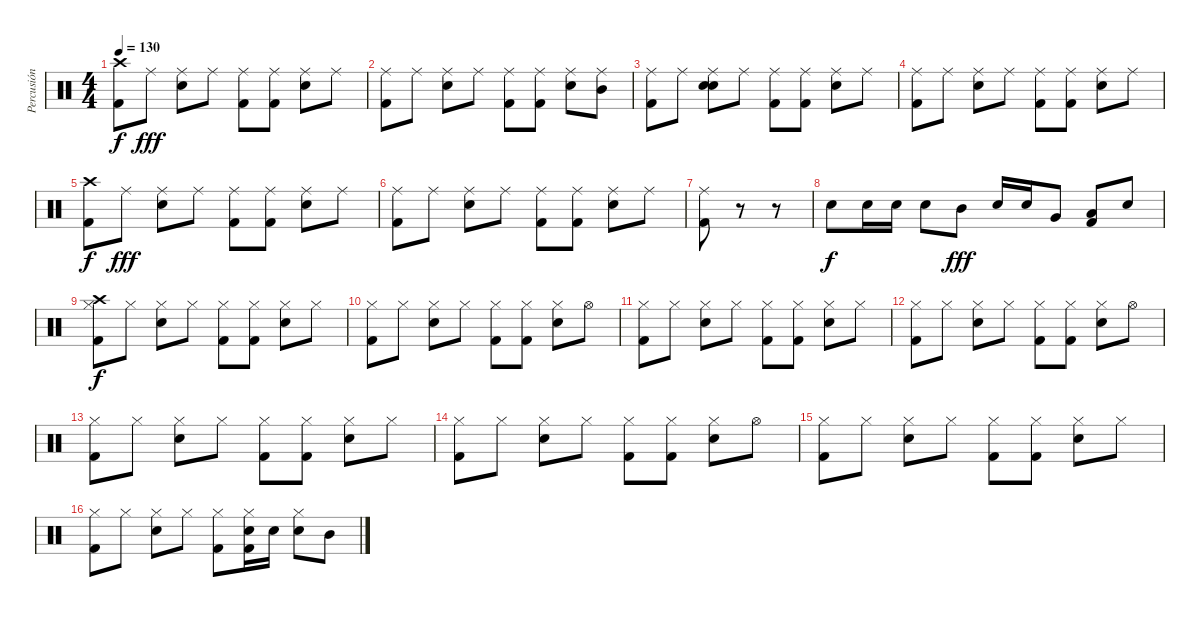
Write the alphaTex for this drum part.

\track ("Percusión" "Percusión") {instrument percussion}
\staff {score}
\articulation defaults
\ts (4 4)
\tempo 130
\clef neutral
\ks c
("Kick (hit) 2" "Crash high (hit)").8{dy f} "Ride (middle)".8{dy fff} ("Ride (middle)" "Electric Snare (hit)").8 "Ride (middle)".8 ("Ride (middle)" "Kick (hit) 2").8 ("Ride (middle)" "Kick (hit) 2").8 ("Ride (middle)" "Electric Snare (hit)").8 "Ride (middle)".8 |
("Ride (middle)" "Kick (hit) 2").8 "Ride (middle)".8 ("Ride (middle)" "Electric Snare (hit)").8 "Ride (middle)".8 ("Ride (middle)" "Kick (hit) 2").8 ("Ride (middle)" "Kick (hit) 2").8 ("Ride (middle)" "Electric Snare (hit)").8 ("Ride (middle)" "Mid Tom (hit)").8{balance 16} |
("Ride (middle)" "Kick (hit) 2").8{balance 8} "Ride (middle)".8 ("Ride (middle)" "Electric Snare (hit)" "Snare (hit)").8 "Ride (middle)".8 ("Ride (middle)" "Kick (hit) 2").8 ("Ride (middle)" "Kick (hit) 2").8 ("Ride (middle)" "Electric Snare (hit)").8 "Ride (middle)".8 |
("Ride (middle)" "Kick (hit) 2").8 "Ride (middle)".8 ("Ride (middle)" "Electric Snare (hit)").8 "Ride (middle)".8 ("Ride (middle)" "Kick (hit) 2").8 ("Ride (middle)" "Kick (hit) 2").8 ("Ride (middle)" "Electric Snare (hit)").8 "Ride (middle)".8 |
("Kick (hit) 2" "Crash high (hit)").8{dy f} "Ride (middle)".8{dy fff} ("Ride (middle)" "Electric Snare (hit)").8 "Ride (middle)".8 ("Ride (middle)" "Kick (hit) 2").8 ("Ride (middle)" "Kick (hit) 2").8 ("Ride (middle)" "Electric Snare (hit)").8 "Ride (middle)".8 |
("Ride (middle)" "Kick (hit) 2").8 "Ride (middle)".8 ("Ride (middle)" "Electric Snare (hit)").8 "Ride (middle)".8 ("Ride (middle)" "Kick (hit) 2").8 ("Ride (middle)" "Kick (hit) 2").8 ("Ride (middle)" "Electric Snare (hit)").8 "Ride (middle)".8 |
("Ride (middle)" "Kick (hit) 2").8 r.8 r.8 |
"Electric Snare (hit)".8{dy f} "Electric Snare (hit)".16 "Electric Snare (hit)".16 "Electric Snare (hit)".8 "Mid Tom (hit)".8{dy fff} "Electric Snare (hit)".16 "Electric Snare (hit)".16 "Very Low Tom (hit)".8 ("Low Floor Tom (hit)" "Kick (hit) 2").8 "Electric Snare (hit)".8 |
("Hi-Hat (closed)" "Kick (hit) 2" "Crash high (hit)").8{dy f} "Hi-Hat (closed)".8 ("Hi-Hat (closed)" "Electric Snare (hit)").8 "Hi-Hat (closed)".8 ("Hi-Hat (closed)" "Kick (hit) 2").8 ("Hi-Hat (closed)" "Kick (hit) 2").8 ("Hi-Hat (closed)" "Electric Snare (hit)").8 "Hi-Hat (closed)".8 |
("Hi-Hat (closed)" "Kick (hit) 2").8 "Hi-Hat (closed)".8 ("Hi-Hat (closed)" "Electric Snare (hit)").8 "Hi-Hat (closed)".8 ("Hi-Hat (closed)" "Kick (hit) 2").8 ("Hi-Hat (closed)" "Kick (hit) 2").8 ("Hi-Hat (closed)" "Electric Snare (hit)").8 "Hi-Hat (open)".8 |
("Hi-Hat (closed)" "Kick (hit) 2").8 "Hi-Hat (closed)".8 ("Hi-Hat (closed)" "Electric Snare (hit)").8 "Hi-Hat (closed)".8 ("Hi-Hat (closed)" "Kick (hit) 2").8 ("Hi-Hat (closed)" "Kick (hit) 2").8 ("Hi-Hat (closed)" "Electric Snare (hit)").8 "Hi-Hat (closed)".8 |
("Hi-Hat (closed)" "Kick (hit) 2").8 "Hi-Hat (closed)".8 ("Hi-Hat (closed)" "Electric Snare (hit)").8 "Hi-Hat (closed)".8 ("Hi-Hat (closed)" "Kick (hit) 2").8 ("Hi-Hat (closed)" "Kick (hit) 2").8 ("Hi-Hat (closed)" "Electric Snare (hit)").8 "Hi-Hat (open)".8 |
("Hi-Hat (closed)" "Kick (hit) 2").8 "Hi-Hat (closed)".8 ("Hi-Hat (closed)" "Electric Snare (hit)").8 "Hi-Hat (closed)".8 ("Hi-Hat (closed)" "Kick (hit) 2").8 ("Hi-Hat (closed)" "Kick (hit) 2").8 ("Hi-Hat (closed)" "Electric Snare (hit)").8 "Hi-Hat (closed)".8 |
("Hi-Hat (closed)" "Kick (hit) 2").8 "Hi-Hat (closed)".8 ("Hi-Hat (closed)" "Electric Snare (hit)").8 "Hi-Hat (closed)".8 ("Hi-Hat (closed)" "Kick (hit) 2").8 ("Hi-Hat (closed)" "Kick (hit) 2").8 ("Hi-Hat (closed)" "Electric Snare (hit)").8 "Hi-Hat (open)".8 |
("Hi-Hat (closed)" "Kick (hit) 2").8 "Hi-Hat (closed)".8 ("Hi-Hat (closed)" "Electric Snare (hit)").8 "Hi-Hat (closed)".8 ("Hi-Hat (closed)" "Kick (hit) 2").8 ("Hi-Hat (closed)" "Kick (hit) 2").8 ("Hi-Hat (closed)" "Electric Snare (hit)").8 "Hi-Hat (closed)".8 |
("Hi-Hat (closed)" "Kick (hit) 2").8 "Hi-Hat (closed)".8 ("Hi-Hat (closed)" "Electric Snare (hit)").8 "Hi-Hat (closed)".8 ("Hi-Hat (closed)" "Kick (hit) 2").8 ("Hi-Hat (closed)" "Electric Snare (hit)" "Kick (hit) 2").16 "Electric Snare (hit)".16 ("Hi-Hat (closed)" "Electric Snare (hit)").8 "Mid Tom (hit)".8
